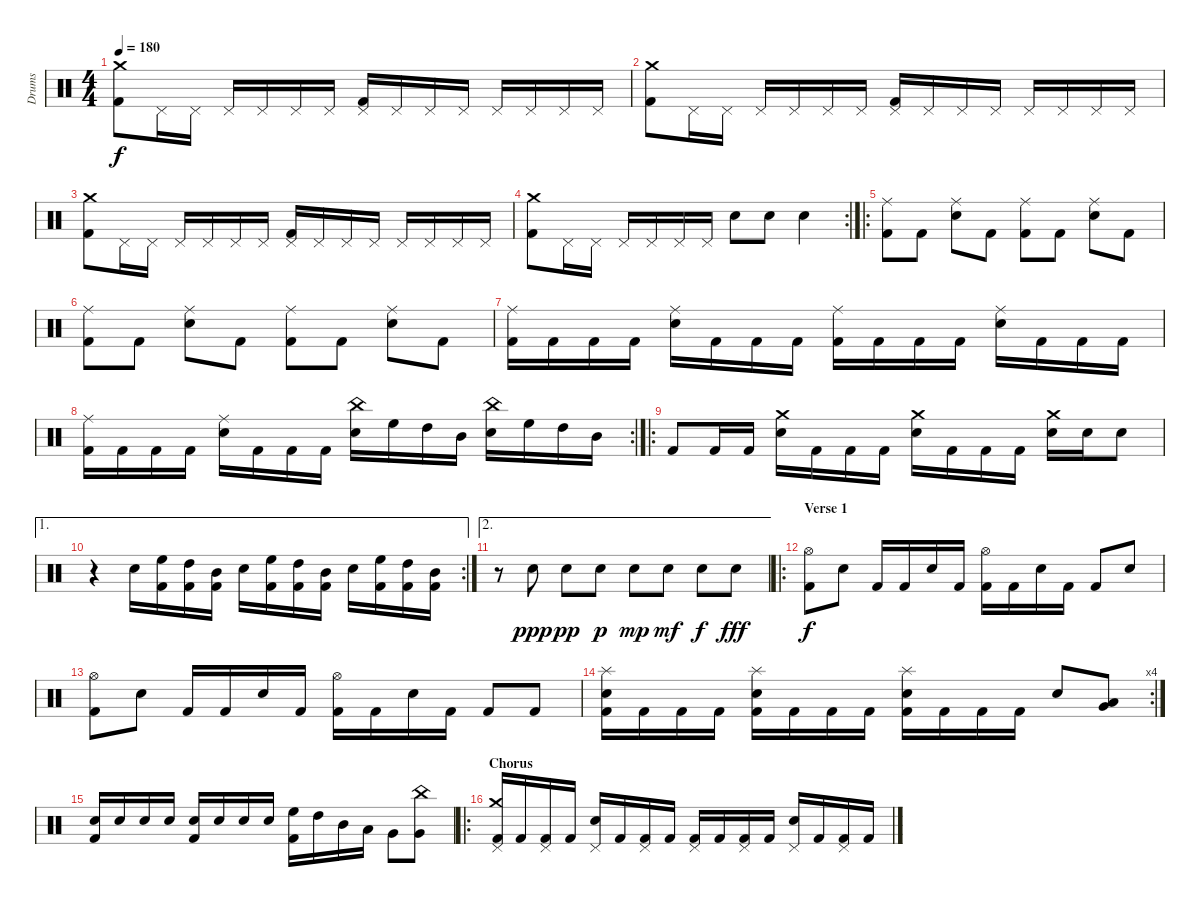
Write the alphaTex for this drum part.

\track ("Drums" "Drums") {instrument percussion}
\staff {score}
\articulation defaults
\ts (4 4)
\tempo 180
\clef neutral
\ks c
("Kick (hit) 2" "Crash medium (hit)").8{dy f} "Pedal Hi-Hat (hit)".16 "Pedal Hi-Hat (hit)".16 "Pedal Hi-Hat (hit)".16 "Pedal Hi-Hat (hit)".16 "Pedal Hi-Hat (hit)".16 "Pedal Hi-Hat (hit)".16 ("Kick (hit) 2" "Pedal Hi-Hat (hit)").16 "Pedal Hi-Hat (hit)".16 "Pedal Hi-Hat (hit)".16 "Pedal Hi-Hat (hit)".16 "Pedal Hi-Hat (hit)".16 "Pedal Hi-Hat (hit)".16 "Pedal Hi-Hat (hit)".16 "Pedal Hi-Hat (hit)".16 |
("Kick (hit) 2" "Crash medium (hit)").8 "Pedal Hi-Hat (hit)".16 "Pedal Hi-Hat (hit)".16 "Pedal Hi-Hat (hit)".16 "Pedal Hi-Hat (hit)".16 "Pedal Hi-Hat (hit)".16 "Pedal Hi-Hat (hit)".16 ("Kick (hit) 2" "Pedal Hi-Hat (hit)").16 "Pedal Hi-Hat (hit)".16 "Pedal Hi-Hat (hit)".16 "Pedal Hi-Hat (hit)".16 "Pedal Hi-Hat (hit)".16 "Pedal Hi-Hat (hit)".16 "Pedal Hi-Hat (hit)".16 "Pedal Hi-Hat (hit)".16 |
("Kick (hit) 2" "Crash medium (hit)").8 "Pedal Hi-Hat (hit)".16 "Pedal Hi-Hat (hit)".16 "Pedal Hi-Hat (hit)".16 "Pedal Hi-Hat (hit)".16 "Pedal Hi-Hat (hit)".16 "Pedal Hi-Hat (hit)".16 ("Kick (hit) 2" "Pedal Hi-Hat (hit)").16 "Pedal Hi-Hat (hit)".16 "Pedal Hi-Hat (hit)".16 "Pedal Hi-Hat (hit)".16 "Pedal Hi-Hat (hit)".16 "Pedal Hi-Hat (hit)".16 "Pedal Hi-Hat (hit)".16 "Pedal Hi-Hat (hit)".16 |
\rc 2
("Kick (hit) 2" "Crash medium (hit)").8 "Pedal Hi-Hat (hit)".16 "Pedal Hi-Hat (hit)".16 "Pedal Hi-Hat (hit)".16 "Pedal Hi-Hat (hit)".16 "Pedal Hi-Hat (hit)".16 "Pedal Hi-Hat (hit)".16 "Electric Snare (hit)".8 "Electric Snare (hit)".8 "Electric Snare (hit)".4 |
\ro
("Ride (middle)" "Kick (hit) 2").8 "Kick (hit) 2".8 ("Ride (middle)" "Electric Snare (hit)").8 "Kick (hit) 2".8 ("Ride (middle)" "Kick (hit) 2").8 "Kick (hit) 2".8 ("Ride (middle)" "Electric Snare (hit)").8 "Kick (hit) 2".8 |
("Ride (middle)" "Kick (hit) 2").8 "Kick (hit) 2".8 ("Ride (middle)" "Electric Snare (hit)").8 "Kick (hit) 2".8 ("Ride (middle)" "Kick (hit) 2").8 "Kick (hit) 2".8 ("Ride (middle)" "Electric Snare (hit)").8 "Kick (hit) 2".8 |
("Ride (middle)" "Kick (hit) 2").16 "Kick (hit) 2".16 "Kick (hit) 2".16 "Kick (hit) 2".16 ("Ride (middle)" "Electric Snare (hit)").16 "Kick (hit) 2".16 "Kick (hit) 2".16 "Kick (hit) 2".16 ("Ride (middle)" "Kick (hit) 2").16 "Kick (hit) 2".16 "Kick (hit) 2".16 "Kick (hit) 2".16 ("Ride (middle)" "Electric Snare (hit)").16 "Kick (hit) 2".16 "Kick (hit) 2".16 "Kick (hit) 2".16 |
\rc 2
("Ride (middle)" "Kick (hit) 2").16 "Kick (hit) 2".16 "Kick (hit) 2".16 "Kick (hit) 2".16 ("Ride (middle)" "Electric Snare (hit)").16 "Kick (hit) 2".16 "Kick (hit) 2".16 "Kick (hit) 2".16 ("China (hit)" "Electric Snare (hit)").16 "High Floor Tom (hit)".16 "High Tom (hit)".16 "Mid Tom (hit)".16 ("China (hit)" "Electric Snare (hit)").16 "High Floor Tom (hit)".16 "High Tom (hit)".16 "Mid Tom (hit)".16 |
\ro "Kick (hit) 2".8 "Kick (hit) 2".16 "Kick (hit) 2".16
("Crash medium (hit)" "Electric Snare (hit)").16 "Kick (hit) 2".16 "Kick (hit) 2".16 "Kick (hit) 2".16 ("Crash medium (hit)" "Electric Snare (hit)").16 "Kick (hit) 2".16 "Kick (hit) 2".16 "Kick (hit) 2".16 ("Crash medium (hit)" "Electric Snare (hit)").16 "Electric Snare (hit)".16 "Electric Snare (hit)".8 |
\ae 1
\rc 2
r.4 "Electric Snare (hit)".16 ("High Floor Tom (hit)" "Kick (hit) 2").16 ("High Tom (hit)" "Kick (hit) 2").16 ("Mid Tom (hit)" "Kick (hit) 2").16 "Electric Snare (hit)".16 ("High Floor Tom (hit)" "Kick (hit) 2").16 ("High Tom (hit)" "Kick (hit) 2").16 ("Mid Tom (hit)" "Kick (hit) 2").16 "Electric Snare (hit)".16 ("High Floor Tom (hit)" "Kick (hit) 2").16 ("High Tom (hit)" "Kick (hit) 2").16 ("Mid Tom (hit)" "Kick (hit) 2").16 |
\ae 2
r.8 "Electric Snare (hit)".8{dy ppp} "Electric Snare (hit)".8{dy pp} "Electric Snare (hit)".8{dy p} "Electric Snare (hit)".8{dy mp} "Electric Snare (hit)".8{dy mf} "Electric Snare (hit)".8{dy f} "Electric Snare (hit)".8{dy fff} |
\ro
\section ("" "Verse 1")
("Hi-Hat (open)" "Kick (hit) 2").8{dy f} "Electric Snare (hit)".8 "Kick (hit) 2".16 "Kick (hit) 2".16 "Electric Snare (hit)".16 "Kick (hit) 2".16 ("Hi-Hat (open)" "Kick (hit) 2").16 "Kick (hit) 2".16 "Electric Snare (hit)".16 "Kick (hit) 2".16 "Kick (hit) 2".8 "Electric Snare (hit)".8 |
("Hi-Hat (open)" "Kick (hit) 2").8 "Electric Snare (hit)".8 "Kick (hit) 2".16 "Kick (hit) 2".16 "Electric Snare (hit)".16 "Kick (hit) 2".16 ("Hi-Hat (open)" "Kick (hit) 2").16 "Kick (hit) 2".16 "Electric Snare (hit)".16 "Kick (hit) 2".16 "Kick (hit) 2".8 "Kick (hit) 2".8 |
\rc 4
("Electric Snare (hit)" "Kick (hit) 2" "Splash (hit)").16 "Kick (hit) 2".16 "Kick (hit) 2".16 "Kick (hit) 2".16 ("Electric Snare (hit)" "Kick (hit) 2" "Splash (hit)").16 "Kick (hit) 2".16 "Kick (hit) 2".16 "Kick (hit) 2".16 ("Electric Snare (hit)" "Kick (hit) 2" "Splash (hit)").16 "Kick (hit) 2".16 "Kick (hit) 2".16 "Kick (hit) 2".16 "Electric Snare (hit)".8 ("Low Tom (hit)" "Very Low Tom (hit)").8 |
("Kick (hit) 2" "Electric Snare (hit)").16 "Electric Snare (hit)".16 "Electric Snare (hit)".16 "Electric Snare (hit)".16 ("Kick (hit) 2" "Electric Snare (hit)").16 "Electric Snare (hit)".16 "Electric Snare (hit)".16 "Electric Snare (hit)".16 ("Kick (hit) 2" "High Floor Tom (hit)").16 "High Tom (hit)".16 "Mid Tom (hit)".16 "Low Tom (hit)".16 "Very Low Tom (hit)".8 ("China (hit)" "Very Low Tom (hit)").8 |
\ro
\section ("" "Chorus")
("Crash medium (hit)" "Pedal Hi-Hat (hit)" "Kick (hit) 2").16 "Kick (hit) 2".16 ("Pedal Hi-Hat (hit)" "Kick (hit) 2").16 "Kick (hit) 2".16 ("Pedal Hi-Hat (hit)" "Electric Snare (hit)").16 "Kick (hit) 2".16 ("Pedal Hi-Hat (hit)" "Kick (hit) 2").16 "Kick (hit) 2".16 ("Pedal Hi-Hat (hit)" "Kick (hit) 2").16 "Kick (hit) 2".16 ("Pedal Hi-Hat (hit)" "Kick (hit) 2").16 "Kick (hit) 2".16 ("Pedal Hi-Hat (hit)" "Electric Snare (hit)").16 "Kick (hit) 2".16 ("Pedal Hi-Hat (hit)" "Kick (hit) 2").16 "Kick (hit) 2".16
